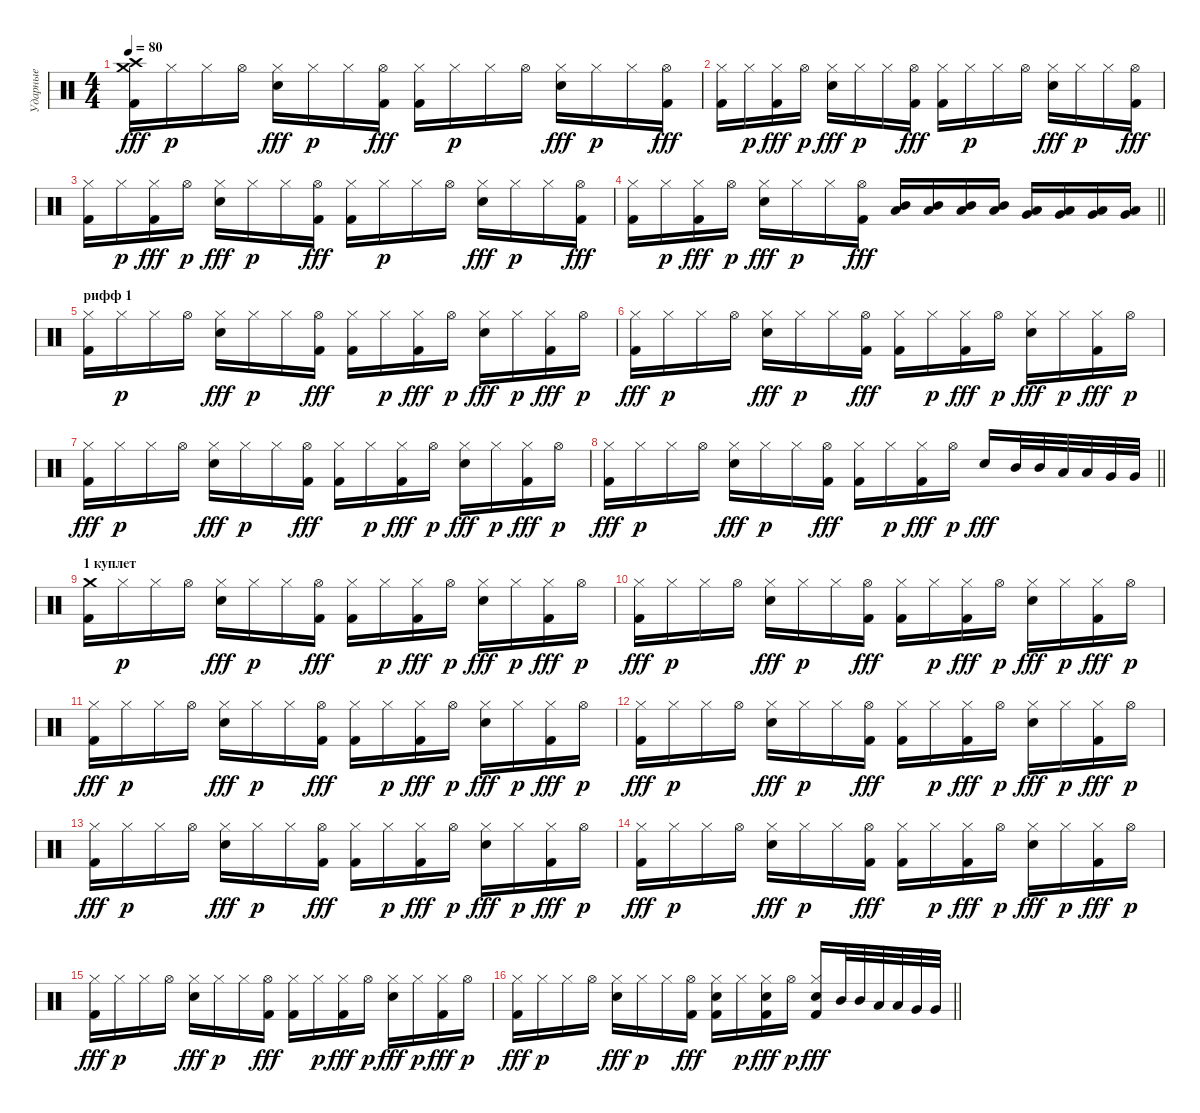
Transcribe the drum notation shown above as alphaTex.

\track ("Ударные" "Ударные") {instrument percussion}
\staff {score}
\articulation defaults
\ts (4 4)
\tempo 80
\clef neutral
\ks c
("Crash medium (hit)" "Crash high (hit)" "Kick (hit) 2").16{dy fff} "Hi-Hat (closed)".16{dy p} "Hi-Hat (closed)".16 "Hi-Hat (open)".16 ("Hi-Hat (closed)" "Snare (hit) 2").16{dy fff} "Hi-Hat (closed)".16{dy p} "Hi-Hat (closed)".16 ("Hi-Hat (open)" "Kick (hit) 2").16{dy fff} ("Hi-Hat (closed)" "Kick (hit) 2").16 "Hi-Hat (closed)".16{dy p} "Hi-Hat (closed)".16 "Hi-Hat (open)".16 ("Hi-Hat (closed)" "Snare (hit) 2").16{dy fff} "Hi-Hat (closed)".16{dy p} "Hi-Hat (closed)".16 ("Hi-Hat (open)" "Kick (hit) 2").16{dy fff} |
("Hi-Hat (closed)" "Kick (hit) 2").16 "Hi-Hat (closed)".16{dy p} ("Hi-Hat (closed)" "Kick (hit) 2").16{dy fff} "Hi-Hat (open)".16{dy p} ("Hi-Hat (closed)" "Snare (hit) 2").16{dy fff} "Hi-Hat (closed)".16{dy p} "Hi-Hat (closed)".16 ("Hi-Hat (open)" "Kick (hit) 2").16{dy fff} ("Hi-Hat (closed)" "Kick (hit) 2").16 "Hi-Hat (closed)".16{dy p} "Hi-Hat (closed)".16 "Hi-Hat (open)".16 ("Hi-Hat (closed)" "Snare (hit) 2").16{dy fff} "Hi-Hat (closed)".16{dy p} "Hi-Hat (closed)".16 ("Hi-Hat (open)" "Kick (hit) 2").16{dy fff} |
("Hi-Hat (closed)" "Kick (hit) 2").16 "Hi-Hat (closed)".16{dy p} ("Hi-Hat (closed)" "Kick (hit) 2").16{dy fff} "Hi-Hat (open)".16{dy p} ("Hi-Hat (closed)" "Snare (hit) 2").16{dy fff} "Hi-Hat (closed)".16{dy p} "Hi-Hat (closed)".16 ("Hi-Hat (open)" "Kick (hit) 2").16{dy fff} ("Hi-Hat (closed)" "Kick (hit) 2").16 "Hi-Hat (closed)".16{dy p} "Hi-Hat (closed)".16 "Hi-Hat (open)".16 ("Hi-Hat (closed)" "Snare (hit) 2").16{dy fff} "Hi-Hat (closed)".16{dy p} "Hi-Hat (closed)".16 ("Hi-Hat (open)" "Kick (hit) 2").16{dy fff} |
\barLineRight lightlight
("Hi-Hat (closed)" "Kick (hit) 2").16 "Hi-Hat (closed)".16{dy p} ("Hi-Hat (closed)" "Kick (hit) 2").16{dy fff} "Hi-Hat (open)".16{dy p} ("Hi-Hat (closed)" "Snare (hit) 2").16{dy fff} "Hi-Hat (closed)".16{dy p} "Hi-Hat (closed)".16 ("Hi-Hat (open)" "Kick (hit) 2").16{dy fff} ("Mid Tom (hit)" "Low Tom (hit)").16 ("Mid Tom (hit)" "Low Tom (hit)").16 ("Mid Tom (hit)" "Low Tom (hit)").16 ("Mid Tom (hit)" "Low Tom (hit)").16 ("Low Tom (hit)" "Very Low Tom (hit)").16 ("Low Tom (hit)" "Very Low Tom (hit)").16 ("Low Tom (hit)" "Very Low Tom (hit)").16 ("Low Tom (hit)" "Very Low Tom (hit)").16 |
\section ("" "рифф 1")
("Hi-Hat (closed)" "Kick (hit) 2").16 "Hi-Hat (closed)".16{dy p} "Hi-Hat (closed)".16 "Hi-Hat (open)".16 ("Hi-Hat (closed)" "Snare (hit) 2").16{dy fff} "Hi-Hat (closed)".16{dy p} "Hi-Hat (closed)".16 ("Hi-Hat (open)" "Kick (hit) 2").16{dy fff} ("Hi-Hat (closed)" "Kick (hit) 2").16 "Hi-Hat (closed)".16{dy p} ("Hi-Hat (closed)" "Kick (hit) 2").16{dy fff} "Hi-Hat (open)".16{dy p} ("Hi-Hat (closed)" "Snare (hit) 2").16{dy fff} "Hi-Hat (closed)".16{dy p} ("Hi-Hat (closed)" "Kick (hit) 2").16{dy fff} "Hi-Hat (open)".16{dy p} |
("Hi-Hat (closed)" "Kick (hit) 2").16{dy fff} "Hi-Hat (closed)".16{dy p} "Hi-Hat (closed)".16 "Hi-Hat (open)".16 ("Hi-Hat (closed)" "Snare (hit) 2").16{dy fff} "Hi-Hat (closed)".16{dy p} "Hi-Hat (closed)".16 ("Hi-Hat (open)" "Kick (hit) 2").16{dy fff} ("Hi-Hat (closed)" "Kick (hit) 2").16 "Hi-Hat (closed)".16{dy p} ("Hi-Hat (closed)" "Kick (hit) 2").16{dy fff} "Hi-Hat (open)".16{dy p} ("Hi-Hat (closed)" "Snare (hit) 2").16{dy fff} "Hi-Hat (closed)".16{dy p} ("Hi-Hat (closed)" "Kick (hit) 2").16{dy fff} "Hi-Hat (open)".16{dy p} |
("Hi-Hat (closed)" "Kick (hit) 2").16{dy fff} "Hi-Hat (closed)".16{dy p} "Hi-Hat (closed)".16 "Hi-Hat (open)".16 ("Hi-Hat (closed)" "Snare (hit) 2").16{dy fff} "Hi-Hat (closed)".16{dy p} "Hi-Hat (closed)".16 ("Hi-Hat (open)" "Kick (hit) 2").16{dy fff} ("Hi-Hat (closed)" "Kick (hit) 2").16 "Hi-Hat (closed)".16{dy p} ("Hi-Hat (closed)" "Kick (hit) 2").16{dy fff} "Hi-Hat (open)".16{dy p} ("Hi-Hat (closed)" "Snare (hit) 2").16{dy fff} "Hi-Hat (closed)".16{dy p} ("Hi-Hat (closed)" "Kick (hit) 2").16{dy fff} "Hi-Hat (open)".16{dy p} |
\barLineRight lightlight
("Hi-Hat (closed)" "Kick (hit) 2").16{dy fff} "Hi-Hat (closed)".16{dy p} "Hi-Hat (closed)".16 "Hi-Hat (open)".16 ("Hi-Hat (closed)" "Snare (hit) 2").16{dy fff} "Hi-Hat (closed)".16{dy p} "Hi-Hat (closed)".16 ("Hi-Hat (open)" "Kick (hit) 2").16{dy fff} ("Hi-Hat (closed)" "Kick (hit) 2").16 "Hi-Hat (closed)".16{dy p} ("Hi-Hat (closed)" "Kick (hit) 2").16{dy fff} "Hi-Hat (open)".16{dy p} "Snare (hit) 2".16{dy fff} "Mid Tom (hit)".32 "Mid Tom (hit)".32 "Low Tom (hit)".32 "Low Tom (hit)".32 "Very Low Tom (hit)".32 "Very Low Tom (hit)".32 |
\section ("" "1 куплет")
("Crash medium (hit)" "Kick (hit) 2").16 "Hi-Hat (closed)".16{dy p} "Hi-Hat (closed)".16 "Hi-Hat (open)".16 ("Hi-Hat (closed)" "Snare (hit) 2").16{dy fff} "Hi-Hat (closed)".16{dy p} "Hi-Hat (closed)".16 ("Hi-Hat (open)" "Kick (hit) 2").16{dy fff} ("Hi-Hat (closed)" "Kick (hit) 2").16 "Hi-Hat (closed)".16{dy p} ("Hi-Hat (closed)" "Kick (hit) 2").16{dy fff} "Hi-Hat (open)".16{dy p} ("Hi-Hat (closed)" "Snare (hit) 2").16{dy fff} "Hi-Hat (closed)".16{dy p} ("Hi-Hat (closed)" "Kick (hit) 2").16{dy fff} "Hi-Hat (open)".16{dy p} |
("Hi-Hat (closed)" "Kick (hit) 2").16{dy fff} "Hi-Hat (closed)".16{dy p} "Hi-Hat (closed)".16 "Hi-Hat (open)".16 ("Hi-Hat (closed)" "Snare (hit) 2").16{dy fff} "Hi-Hat (closed)".16{dy p} "Hi-Hat (closed)".16 ("Hi-Hat (open)" "Kick (hit) 2").16{dy fff} ("Hi-Hat (closed)" "Kick (hit) 2").16 "Hi-Hat (closed)".16{dy p} ("Hi-Hat (closed)" "Kick (hit) 2").16{dy fff} "Hi-Hat (open)".16{dy p} ("Hi-Hat (closed)" "Snare (hit) 2").16{dy fff} "Hi-Hat (closed)".16{dy p} ("Hi-Hat (closed)" "Kick (hit) 2").16{dy fff} "Hi-Hat (open)".16{dy p} |
("Hi-Hat (closed)" "Kick (hit) 2").16{dy fff} "Hi-Hat (closed)".16{dy p} "Hi-Hat (closed)".16 "Hi-Hat (open)".16 ("Hi-Hat (closed)" "Snare (hit) 2").16{dy fff} "Hi-Hat (closed)".16{dy p} "Hi-Hat (closed)".16 ("Hi-Hat (open)" "Kick (hit) 2").16{dy fff} ("Hi-Hat (closed)" "Kick (hit) 2").16 "Hi-Hat (closed)".16{dy p} ("Hi-Hat (closed)" "Kick (hit) 2").16{dy fff} "Hi-Hat (open)".16{dy p} ("Hi-Hat (closed)" "Snare (hit) 2").16{dy fff} "Hi-Hat (closed)".16{dy p} ("Hi-Hat (closed)" "Kick (hit) 2").16{dy fff} "Hi-Hat (open)".16{dy p} |
("Hi-Hat (closed)" "Kick (hit) 2").16{dy fff} "Hi-Hat (closed)".16{dy p} "Hi-Hat (closed)".16 "Hi-Hat (open)".16 ("Hi-Hat (closed)" "Snare (hit) 2").16{dy fff} "Hi-Hat (closed)".16{dy p} "Hi-Hat (closed)".16 ("Hi-Hat (open)" "Kick (hit) 2").16{dy fff} ("Hi-Hat (closed)" "Kick (hit) 2").16 "Hi-Hat (closed)".16{dy p} ("Hi-Hat (closed)" "Kick (hit) 2").16{dy fff} "Hi-Hat (open)".16{dy p} ("Hi-Hat (closed)" "Snare (hit) 2").16{dy fff} "Hi-Hat (closed)".16{dy p} ("Hi-Hat (closed)" "Kick (hit) 2").16{dy fff} "Hi-Hat (open)".16{dy p} |
("Hi-Hat (closed)" "Kick (hit) 2").16{dy fff} "Hi-Hat (closed)".16{dy p} "Hi-Hat (closed)".16 "Hi-Hat (open)".16 ("Hi-Hat (closed)" "Snare (hit) 2").16{dy fff} "Hi-Hat (closed)".16{dy p} "Hi-Hat (closed)".16 ("Hi-Hat (open)" "Kick (hit) 2").16{dy fff} ("Hi-Hat (closed)" "Kick (hit) 2").16 "Hi-Hat (closed)".16{dy p} ("Hi-Hat (closed)" "Kick (hit) 2").16{dy fff} "Hi-Hat (open)".16{dy p} ("Hi-Hat (closed)" "Snare (hit) 2").16{dy fff} "Hi-Hat (closed)".16{dy p} ("Hi-Hat (closed)" "Kick (hit) 2").16{dy fff} "Hi-Hat (open)".16{dy p} |
("Hi-Hat (closed)" "Kick (hit) 2").16{dy fff} "Hi-Hat (closed)".16{dy p} "Hi-Hat (closed)".16 "Hi-Hat (open)".16 ("Hi-Hat (closed)" "Snare (hit) 2").16{dy fff} "Hi-Hat (closed)".16{dy p} "Hi-Hat (closed)".16 ("Hi-Hat (open)" "Kick (hit) 2").16{dy fff} ("Hi-Hat (closed)" "Kick (hit) 2").16 "Hi-Hat (closed)".16{dy p} ("Hi-Hat (closed)" "Kick (hit) 2").16{dy fff} "Hi-Hat (open)".16{dy p} ("Hi-Hat (closed)" "Snare (hit) 2").16{dy fff} "Hi-Hat (closed)".16{dy p} ("Hi-Hat (closed)" "Kick (hit) 2").16{dy fff} "Hi-Hat (open)".16{dy p} |
("Hi-Hat (closed)" "Kick (hit) 2").16{dy fff} "Hi-Hat (closed)".16{dy p} "Hi-Hat (closed)".16 "Hi-Hat (open)".16 ("Hi-Hat (closed)" "Snare (hit) 2").16{dy fff} "Hi-Hat (closed)".16{dy p} "Hi-Hat (closed)".16 ("Hi-Hat (open)" "Kick (hit) 2").16{dy fff} ("Hi-Hat (closed)" "Kick (hit) 2").16 "Hi-Hat (closed)".16{dy p} ("Hi-Hat (closed)" "Kick (hit) 2").16{dy fff} "Hi-Hat (open)".16{dy p} ("Hi-Hat (closed)" "Snare (hit) 2").16{dy fff} "Hi-Hat (closed)".16{dy p} ("Hi-Hat (closed)" "Kick (hit) 2").16{dy fff} "Hi-Hat (open)".16{dy p} |
\barLineRight lightlight
("Hi-Hat (closed)" "Kick (hit) 2").16{dy fff} "Hi-Hat (closed)".16{dy p} "Hi-Hat (closed)".16 "Hi-Hat (open)".16 ("Hi-Hat (closed)" "Snare (hit) 2").16{dy fff} "Hi-Hat (closed)".16{dy p} "Hi-Hat (closed)".16 ("Hi-Hat (open)" "Kick (hit) 2").16{dy fff} ("Hi-Hat (closed)" "Snare (hit) 2" "Kick (hit) 2").16 "Hi-Hat (closed)".16{dy p} ("Hi-Hat (closed)" "Snare (hit) 2" "Kick (hit) 2").16{dy fff} "Hi-Hat (open)".16{dy p} ("Hi-Hat (closed)" "Snare (hit) 2" "Kick (hit) 2").16{dy fff} "Mid Tom (hit)".32 "Mid Tom (hit)".32 "Low Tom (hit)".32 "Low Tom (hit)".32 "Very Low Tom (hit)".32 "Very Low Tom (hit)".32
